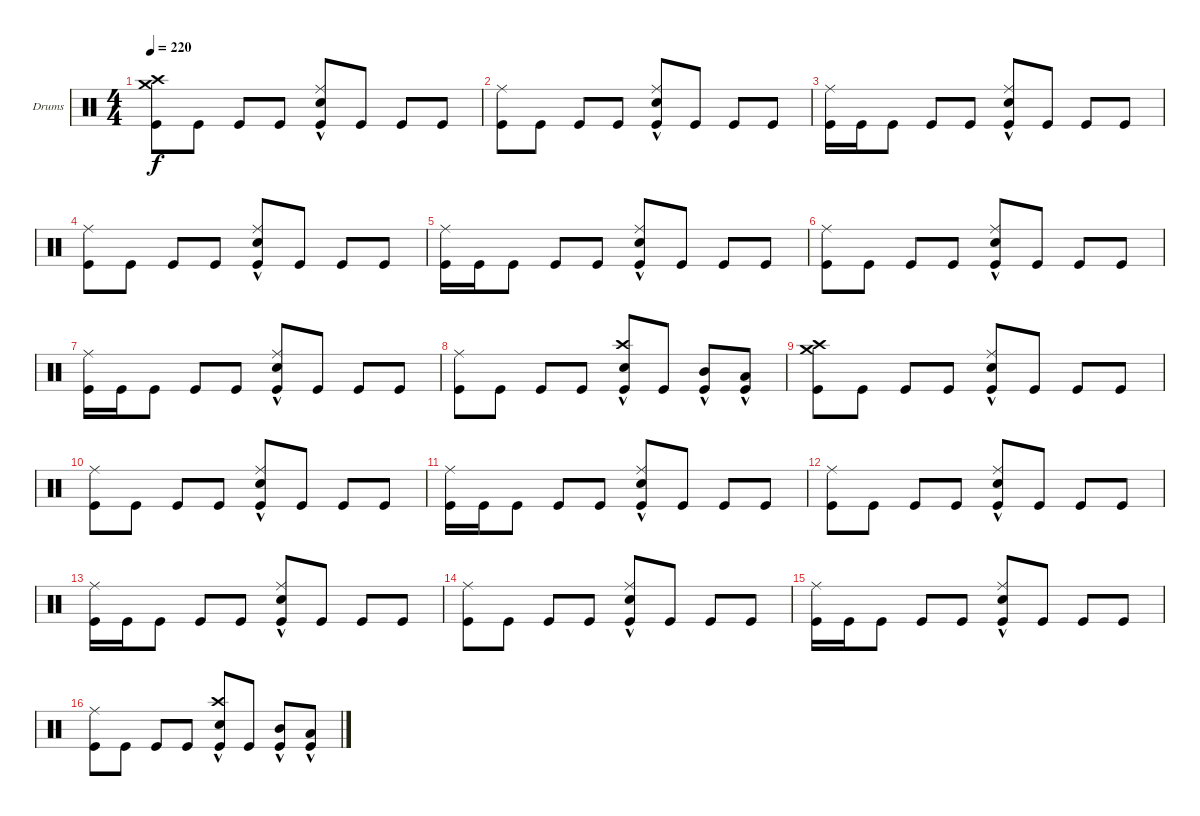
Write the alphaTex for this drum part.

\defaultSystemsLayout 4
\bracketExtendMode groupsimilarinstruments
\firstSystemTrackNameOrientation horizontal
\otherSystemsTrackNameOrientation horizontal
\track ("Drumkit" "Drums") {instrument percussion}
\staff {score}
\articulation defaults
\ts (4 4)
\tempo 220
\clef neutral
\scale
0.377778
\ks c
("Kick (hit)" "Crash high (hit)" "Crash medium (hit)").8{dy f} "Kick (hit)".8 "Kick (hit)".8 "Kick (hit)".8 ("Kick (hit)" "Ride (middle)" "Snare (hit) 2"{hac}).8 "Kick (hit)".8 "Kick (hit)".8 "Kick (hit)".8 |
\scale
0.311111 ("Kick (hit)" "Ride (middle)").8 "Kick (hit)".8 "Kick (hit)".8 "Kick (hit)".8 ("Kick (hit)" "Ride (middle)" "Snare (hit) 2"{hac}).8 "Kick (hit)".8 "Kick (hit)".8 "Kick (hit)".8 |
\scale
0.311111 ("Kick (hit)" "Ride (middle)").16 "Kick (hit)".16 "Kick (hit)".8 "Kick (hit)".8 "Kick (hit)".8 ("Kick (hit)" "Ride (middle)" "Snare (hit) 2"{hac}).8 "Kick (hit)".8 "Kick (hit)".8 "Kick (hit)".8 |
\scale
0.333333 ("Kick (hit)" "Ride (middle)").8 "Kick (hit)".8 "Kick (hit)".8 "Kick (hit)".8 ("Kick (hit)" "Ride (middle)" "Snare (hit) 2"{hac}).8 "Kick (hit)".8 "Kick (hit)".8 "Kick (hit)".8 |
\scale
0.333333 ("Kick (hit)" "Ride (middle)").16 "Kick (hit)".16 "Kick (hit)".8 "Kick (hit)".8 "Kick (hit)".8 ("Kick (hit)" "Ride (middle)" "Snare (hit) 2"{hac}).8 "Kick (hit)".8 "Kick (hit)".8 "Kick (hit)".8 |
\scale
0.333333 ("Kick (hit)" "Ride (middle)").8 "Kick (hit)".8 "Kick (hit)".8 "Kick (hit)".8 ("Kick (hit)" "Ride (middle)" "Snare (hit) 2"{hac}).8 "Kick (hit)".8 "Kick (hit)".8 "Kick (hit)".8 |
\scale
0.321839 ("Kick (hit)" "Ride (middle)").16 "Kick (hit)".16 "Kick (hit)".8 "Kick (hit)".8 "Kick (hit)".8 ("Kick (hit)" "Ride (middle)" "Snare (hit) 2"{hac}).8 "Kick (hit)".8 "Kick (hit)".8 "Kick (hit)".8 |
\scale
0.356322 ("Kick (hit)" "Ride (middle)").8 "Kick (hit)".8 "Kick (hit)".8 "Kick (hit)".8 ("Kick (hit)" "Snare (hit) 2"{hac} "Crash high (hit)").8 "Kick (hit)".8 ("Kick (hit)" "Mid Tom (hit)"{hac}).8 ("Kick (hit)" "Low Tom (hit)"{hac}).8 |
("Kick (hit)" "Crash high (hit)" "Crash medium (hit)").8 "Kick (hit)".8 "Kick (hit)".8 "Kick (hit)".8 ("Kick (hit)" "Ride (middle)" "Snare (hit) 2"{hac}).8 "Kick (hit)".8 "Kick (hit)".8 "Kick (hit)".8 |
("Kick (hit)" "Ride (middle)").8 "Kick (hit)".8 "Kick (hit)".8 "Kick (hit)".8 ("Kick (hit)" "Ride (middle)" "Snare (hit) 2"{hac}).8 "Kick (hit)".8 "Kick (hit)".8 "Kick (hit)".8 |
("Kick (hit)" "Ride (middle)").16 "Kick (hit)".16 "Kick (hit)".8 "Kick (hit)".8 "Kick (hit)".8 ("Kick (hit)" "Ride (middle)" "Snare (hit) 2"{hac}).8 "Kick (hit)".8 "Kick (hit)".8 "Kick (hit)".8 |
("Kick (hit)" "Ride (middle)").8 "Kick (hit)".8 "Kick (hit)".8 "Kick (hit)".8 ("Kick (hit)" "Ride (middle)" "Snare (hit) 2"{hac}).8 "Kick (hit)".8 "Kick (hit)".8 "Kick (hit)".8 |
("Kick (hit)" "Ride (middle)").16 "Kick (hit)".16 "Kick (hit)".8 "Kick (hit)".8 "Kick (hit)".8 ("Kick (hit)" "Ride (middle)" "Snare (hit) 2"{hac}).8 "Kick (hit)".8 "Kick (hit)".8 "Kick (hit)".8 |
("Kick (hit)" "Ride (middle)").8 "Kick (hit)".8 "Kick (hit)".8 "Kick (hit)".8 ("Kick (hit)" "Ride (middle)" "Snare (hit) 2"{hac}).8 "Kick (hit)".8 "Kick (hit)".8 "Kick (hit)".8 |
("Kick (hit)" "Ride (middle)").16 "Kick (hit)".16 "Kick (hit)".8 "Kick (hit)".8 "Kick (hit)".8 ("Kick (hit)" "Ride (middle)" "Snare (hit) 2"{hac}).8 "Kick (hit)".8 "Kick (hit)".8 "Kick (hit)".8 |
("Kick (hit)" "Ride (middle)").8 "Kick (hit)".8 "Kick (hit)".8 "Kick (hit)".8 ("Kick (hit)" "Snare (hit) 2"{hac} "Crash high (hit)").8 "Kick (hit)".8 ("Kick (hit)" "Mid Tom (hit)"{hac}).8 ("Kick (hit)" "Low Tom (hit)"{hac}).8
